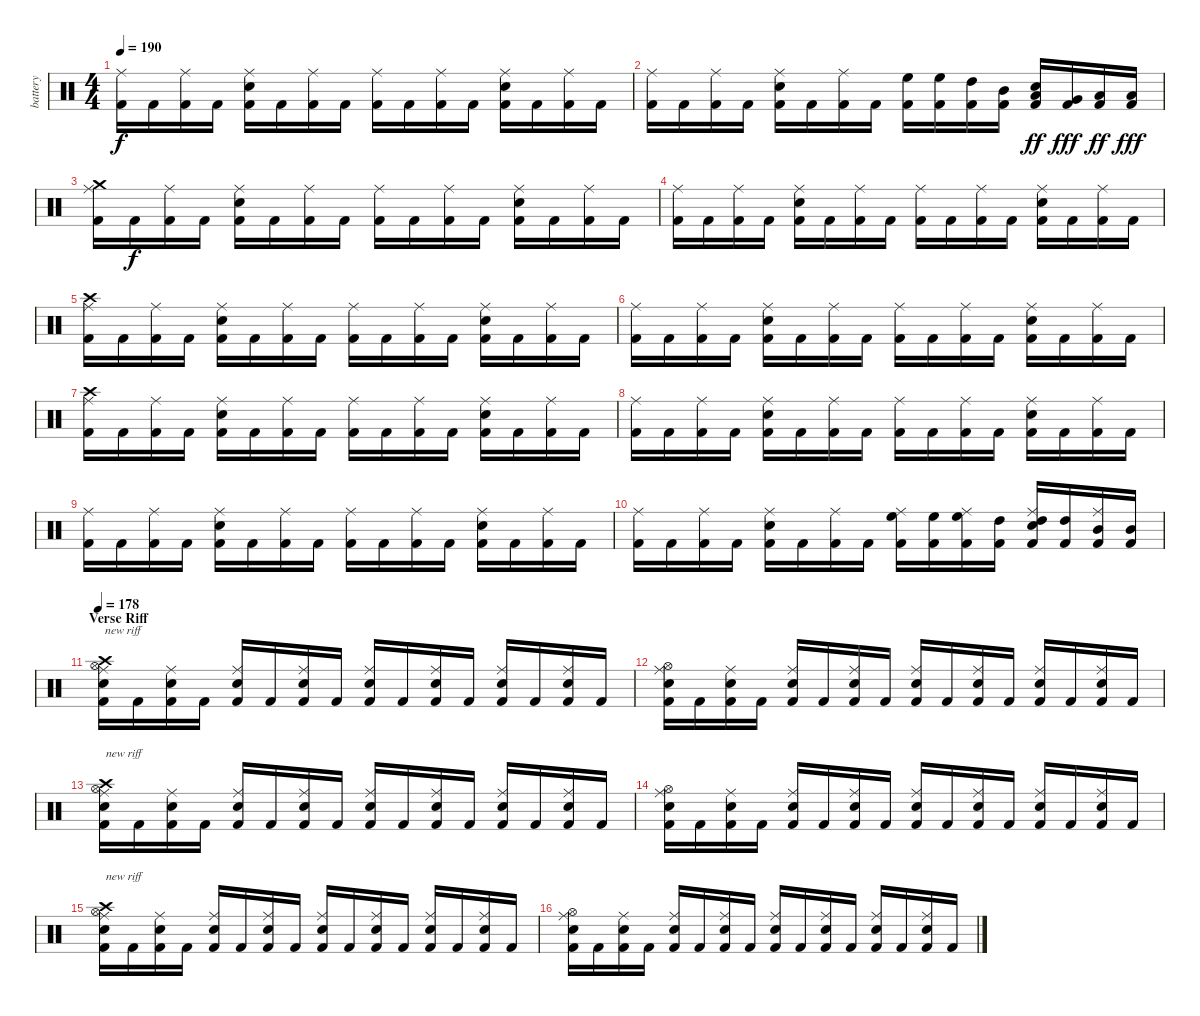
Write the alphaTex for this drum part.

\track ("battery" "battery") {instrument percussion}
\staff {score}
\articulation defaults
\ts (4 4)
\tempo 190
\clef neutral
\ks c
("Kick (hit) 2" "Ride (middle)").16{dy f} "Kick (hit) 2".16 ("Kick (hit) 2" "Ride (middle)").16 "Kick (hit) 2".16 ("Kick (hit) 2" "Electric Snare (hit)" "Ride (middle)").16 "Kick (hit) 2".16 ("Kick (hit) 2" "Ride (middle)").16 "Kick (hit) 2".16 ("Kick (hit) 2" "Ride (middle)").16 "Kick (hit) 2".16 ("Kick (hit) 2" "Ride (middle)").16 "Kick (hit) 2".16 ("Kick (hit) 2" "Electric Snare (hit)" "Ride (middle)").16 "Kick (hit) 2".16 ("Kick (hit) 2" "Ride (middle)").16 "Kick (hit) 2".16 |
("Kick (hit) 2" "Ride (middle)").16 "Kick (hit) 2".16 ("Kick (hit) 2" "Ride (middle)").16 "Kick (hit) 2".16 ("Kick (hit) 2" "Electric Snare (hit)" "Ride (middle)").16 "Kick (hit) 2".16 ("Kick (hit) 2" "Ride (middle)").16 "Kick (hit) 2".16 ("Kick (hit) 2" "High Floor Tom (hit)").16 ("Kick (hit) 2" "High Floor Tom (hit)").16 ("Kick (hit) 2" "High Tom (hit)").16 ("Kick (hit) 2" "Mid Tom (hit)").16 ("Kick (hit) 2" "Electric Snare (hit)" "Low Tom (hit)").16{dy ff} ("Kick (hit) 2" "Very Low Tom (hit)").16{dy fff} ("Kick (hit) 2" "Low Floor Tom (hit)").16{dy ff} ("Kick (hit) 2" "Low Floor Tom (hit)").16{dy fff} |
("Kick (hit) 2" "Crash medium (hit)" "Ride (middle)").16 "Kick (hit) 2".16{dy f} ("Kick (hit) 2" "Ride (middle)").16 "Kick (hit) 2".16 ("Kick (hit) 2" "Electric Snare (hit)" "Ride (middle)").16 "Kick (hit) 2".16 ("Kick (hit) 2" "Ride (middle)").16 "Kick (hit) 2".16 ("Kick (hit) 2" "Ride (middle)").16 "Kick (hit) 2".16 ("Kick (hit) 2" "Ride (middle)").16 "Kick (hit) 2".16 ("Kick (hit) 2" "Electric Snare (hit)" "Ride (middle)").16 "Kick (hit) 2".16 ("Kick (hit) 2" "Ride (middle)").16 "Kick (hit) 2".16 |
("Kick (hit) 2" "Ride (middle)").16 "Kick (hit) 2".16 ("Kick (hit) 2" "Ride (middle)").16 "Kick (hit) 2".16 ("Kick (hit) 2" "Electric Snare (hit)" "Ride (middle)").16 "Kick (hit) 2".16 ("Kick (hit) 2" "Ride (middle)").16 "Kick (hit) 2".16 ("Kick (hit) 2" "Ride (middle)").16 "Kick (hit) 2".16 ("Kick (hit) 2" "Ride (middle)").16 "Kick (hit) 2".16 ("Kick (hit) 2" "Electric Snare (hit)" "Ride (middle)").16 "Kick (hit) 2".16 ("Kick (hit) 2" "Ride (middle)").16 "Kick (hit) 2".16 |
("Kick (hit) 2" "Crash high (hit)" "Ride (middle)").16 "Kick (hit) 2".16 ("Kick (hit) 2" "Ride (middle)").16 "Kick (hit) 2".16 ("Kick (hit) 2" "Electric Snare (hit)" "Ride (middle)").16 "Kick (hit) 2".16 ("Kick (hit) 2" "Ride (middle)").16 "Kick (hit) 2".16 ("Kick (hit) 2" "Ride (middle)").16 "Kick (hit) 2".16 ("Kick (hit) 2" "Ride (middle)").16 "Kick (hit) 2".16 ("Kick (hit) 2" "Electric Snare (hit)" "Ride (middle)").16 "Kick (hit) 2".16 ("Kick (hit) 2" "Ride (middle)").16 "Kick (hit) 2".16 |
("Kick (hit) 2" "Ride (middle)").16 "Kick (hit) 2".16 ("Kick (hit) 2" "Ride (middle)").16 "Kick (hit) 2".16 ("Kick (hit) 2" "Electric Snare (hit)" "Ride (middle)").16 "Kick (hit) 2".16 ("Kick (hit) 2" "Ride (middle)").16 "Kick (hit) 2".16 ("Kick (hit) 2" "Ride (middle)").16 "Kick (hit) 2".16 ("Kick (hit) 2" "Ride (middle)").16 "Kick (hit) 2".16 ("Kick (hit) 2" "Electric Snare (hit)" "Ride (middle)").16 "Kick (hit) 2".16 ("Kick (hit) 2" "Ride (middle)").16 "Kick (hit) 2".16 |
("Kick (hit) 2" "Crash high (hit)" "Ride (middle)").16 "Kick (hit) 2".16 ("Kick (hit) 2" "Ride (middle)").16 "Kick (hit) 2".16 ("Kick (hit) 2" "Electric Snare (hit)" "Ride (middle)").16 "Kick (hit) 2".16 ("Kick (hit) 2" "Ride (middle)").16 "Kick (hit) 2".16 ("Kick (hit) 2" "Ride (middle)").16 "Kick (hit) 2".16 ("Kick (hit) 2" "Ride (middle)").16 "Kick (hit) 2".16 ("Kick (hit) 2" "Electric Snare (hit)" "Ride (middle)").16 "Kick (hit) 2".16 ("Kick (hit) 2" "Ride (middle)").16 "Kick (hit) 2".16 |
("Kick (hit) 2" "Ride (middle)").16 "Kick (hit) 2".16 ("Kick (hit) 2" "Ride (middle)").16 "Kick (hit) 2".16 ("Kick (hit) 2" "Electric Snare (hit)" "Ride (middle)").16 "Kick (hit) 2".16 ("Kick (hit) 2" "Ride (middle)").16 "Kick (hit) 2".16 ("Kick (hit) 2" "Ride (middle)").16 "Kick (hit) 2".16 ("Kick (hit) 2" "Ride (middle)").16 "Kick (hit) 2".16 ("Kick (hit) 2" "Electric Snare (hit)" "Ride (middle)").16 "Kick (hit) 2".16 ("Kick (hit) 2" "Ride (middle)").16 "Kick (hit) 2".16 |
("Kick (hit) 2" "Ride (middle)").16 "Kick (hit) 2".16 ("Kick (hit) 2" "Ride (middle)").16 "Kick (hit) 2".16 ("Kick (hit) 2" "Electric Snare (hit)" "Ride (middle)").16 "Kick (hit) 2".16 ("Kick (hit) 2" "Ride (middle)").16 "Kick (hit) 2".16 ("Kick (hit) 2" "Ride (middle)").16 "Kick (hit) 2".16 ("Kick (hit) 2" "Ride (middle)").16 "Kick (hit) 2".16 ("Kick (hit) 2" "Electric Snare (hit)" "Ride (middle)").16 "Kick (hit) 2".16 ("Kick (hit) 2" "Ride (middle)").16 "Kick (hit) 2".16 |
("Kick (hit) 2" "Ride (middle)").16 "Kick (hit) 2".16 ("Kick (hit) 2" "Ride (middle)").16 "Kick (hit) 2".16 ("Kick (hit) 2" "Electric Snare (hit)" "Ride (middle)").16 "Kick (hit) 2".16 ("Kick (hit) 2" "Ride (middle)").16 "Kick (hit) 2".16 ("Kick (hit) 2" "Ride (middle)" "High Floor Tom (hit)").16 ("Kick (hit) 2" "High Floor Tom (hit)").16 ("Kick (hit) 2" "Ride (middle)" "High Floor Tom (hit)").16 ("Kick (hit) 2" "High Tom (hit)").16 ("Kick (hit) 2" "Electric Snare (hit)" "Ride (middle)" "High Tom (hit)").16 ("Kick (hit) 2" "High Tom (hit)").16 ("Kick (hit) 2" "Ride (middle)" "Mid Tom (hit)").16 ("Kick (hit) 2" "Mid Tom (hit)").16 |
\section ("" "Verse Riff")
\tempo 178
("Kick (hit) 2" "Electric Snare (hit)" "Hi-Hat (open)" "Crash high (hit)" "Ride (middle)").16{txt "new riff"} "Kick (hit) 2".16 ("Kick (hit) 2" "Electric Snare (hit)" "Ride (middle)").16 "Kick (hit) 2".16 ("Kick (hit) 2" "Electric Snare (hit)" "Ride (middle)").16 "Kick (hit) 2".16 ("Kick (hit) 2" "Electric Snare (hit)" "Ride (middle)").16 "Kick (hit) 2".16 ("Kick (hit) 2" "Electric Snare (hit)" "Ride (middle)").16 "Kick (hit) 2".16 ("Kick (hit) 2" "Electric Snare (hit)" "Ride (middle)").16 "Kick (hit) 2".16 ("Kick (hit) 2" "Electric Snare (hit)" "Ride (middle)").16 "Kick (hit) 2".16 ("Kick (hit) 2" "Electric Snare (hit)" "Ride (middle)").16 "Kick (hit) 2".16 |
("Kick (hit) 2" "Electric Snare (hit)" "Hi-Hat (open)" "Ride (middle)").16 "Kick (hit) 2".16 ("Kick (hit) 2" "Electric Snare (hit)" "Ride (middle)").16 "Kick (hit) 2".16 ("Kick (hit) 2" "Electric Snare (hit)" "Ride (middle)").16 "Kick (hit) 2".16 ("Kick (hit) 2" "Electric Snare (hit)" "Ride (middle)").16 "Kick (hit) 2".16 ("Kick (hit) 2" "Electric Snare (hit)" "Ride (middle)").16 "Kick (hit) 2".16 ("Kick (hit) 2" "Electric Snare (hit)" "Ride (middle)").16 "Kick (hit) 2".16 ("Kick (hit) 2" "Electric Snare (hit)" "Ride (middle)").16 "Kick (hit) 2".16 ("Kick (hit) 2" "Electric Snare (hit)" "Ride (middle)").16 "Kick (hit) 2".16 |
("Kick (hit) 2" "Electric Snare (hit)" "Hi-Hat (open)" "Crash high (hit)" "Ride (middle)").16{txt "new riff"} "Kick (hit) 2".16 ("Kick (hit) 2" "Electric Snare (hit)" "Ride (middle)").16 "Kick (hit) 2".16 ("Kick (hit) 2" "Electric Snare (hit)" "Ride (middle)").16 "Kick (hit) 2".16 ("Kick (hit) 2" "Electric Snare (hit)" "Ride (middle)").16 "Kick (hit) 2".16 ("Kick (hit) 2" "Electric Snare (hit)" "Ride (middle)").16 "Kick (hit) 2".16 ("Kick (hit) 2" "Electric Snare (hit)" "Ride (middle)").16 "Kick (hit) 2".16 ("Kick (hit) 2" "Electric Snare (hit)" "Ride (middle)").16 "Kick (hit) 2".16 ("Kick (hit) 2" "Electric Snare (hit)" "Ride (middle)").16 "Kick (hit) 2".16 |
("Kick (hit) 2" "Electric Snare (hit)" "Hi-Hat (open)" "Ride (middle)").16 "Kick (hit) 2".16 ("Kick (hit) 2" "Electric Snare (hit)" "Ride (middle)").16 "Kick (hit) 2".16 ("Kick (hit) 2" "Electric Snare (hit)" "Ride (middle)").16 "Kick (hit) 2".16 ("Kick (hit) 2" "Electric Snare (hit)" "Ride (middle)").16 "Kick (hit) 2".16 ("Kick (hit) 2" "Electric Snare (hit)" "Ride (middle)").16 "Kick (hit) 2".16 ("Kick (hit) 2" "Electric Snare (hit)" "Ride (middle)").16 "Kick (hit) 2".16 ("Kick (hit) 2" "Electric Snare (hit)" "Ride (middle)").16 "Kick (hit) 2".16 ("Kick (hit) 2" "Electric Snare (hit)" "Ride (middle)").16 "Kick (hit) 2".16 |
("Kick (hit) 2" "Electric Snare (hit)" "Hi-Hat (open)" "Crash high (hit)" "Ride (middle)").16{txt "new riff"} "Kick (hit) 2".16 ("Kick (hit) 2" "Electric Snare (hit)" "Ride (middle)").16 "Kick (hit) 2".16 ("Kick (hit) 2" "Electric Snare (hit)" "Ride (middle)").16 "Kick (hit) 2".16 ("Kick (hit) 2" "Electric Snare (hit)" "Ride (middle)").16 "Kick (hit) 2".16 ("Kick (hit) 2" "Electric Snare (hit)" "Ride (middle)").16 "Kick (hit) 2".16 ("Kick (hit) 2" "Electric Snare (hit)" "Ride (middle)").16 "Kick (hit) 2".16 ("Kick (hit) 2" "Electric Snare (hit)" "Ride (middle)").16 "Kick (hit) 2".16 ("Kick (hit) 2" "Electric Snare (hit)" "Ride (middle)").16 "Kick (hit) 2".16 |
("Kick (hit) 2" "Electric Snare (hit)" "Hi-Hat (open)" "Ride (middle)").16 "Kick (hit) 2".16 ("Kick (hit) 2" "Electric Snare (hit)" "Ride (middle)").16 "Kick (hit) 2".16 ("Kick (hit) 2" "Electric Snare (hit)" "Ride (middle)").16 "Kick (hit) 2".16 ("Kick (hit) 2" "Electric Snare (hit)" "Ride (middle)").16 "Kick (hit) 2".16 ("Kick (hit) 2" "Electric Snare (hit)" "Ride (middle)").16 "Kick (hit) 2".16 ("Kick (hit) 2" "Electric Snare (hit)" "Ride (middle)").16 "Kick (hit) 2".16 ("Kick (hit) 2" "Electric Snare (hit)" "Ride (middle)").16 "Kick (hit) 2".16 ("Kick (hit) 2" "Electric Snare (hit)" "Ride (middle)").16 "Kick (hit) 2".16
